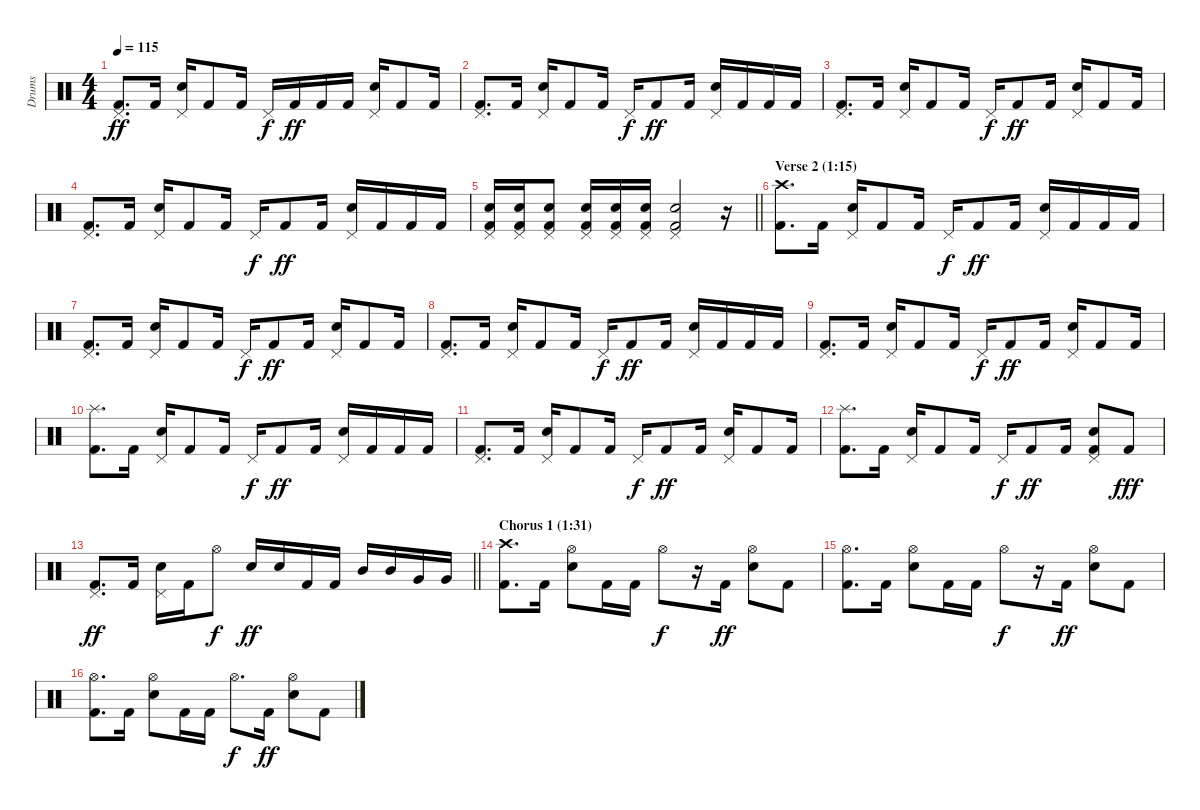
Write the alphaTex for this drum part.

\track ("Drums" "Drums") {instrument percussion}
\staff {score}
\articulation defaults
\ts (4 4)
\tempo 115
\clef neutral
\ks c
("Pedal Hi-Hat (hit)" "Kick (hit) 2").8{d dy ff} "Kick (hit) 2".16 ("Pedal Hi-Hat (hit)" "Snare (hit) 2").16 "Kick (hit) 2".8 "Kick (hit) 2".16 "Pedal Hi-Hat (hit)".16{dy f} "Kick (hit) 2".16{dy ff} "Kick (hit) 2".16 "Kick (hit) 2".16 ("Pedal Hi-Hat (hit)" "Snare (hit) 2").16 "Kick (hit) 2".8 "Kick (hit) 2".16 |
("Pedal Hi-Hat (hit)" "Kick (hit) 2").8{d} "Kick (hit) 2".16 ("Pedal Hi-Hat (hit)" "Snare (hit) 2").16 "Kick (hit) 2".8 "Kick (hit) 2".16 "Pedal Hi-Hat (hit)".16{dy f} "Kick (hit) 2".8{dy ff} "Kick (hit) 2".16 ("Pedal Hi-Hat (hit)" "Snare (hit) 2").16 "Kick (hit) 2".16 "Kick (hit) 2".16 "Kick (hit) 2".16 |
("Pedal Hi-Hat (hit)" "Kick (hit) 2").8{d} "Kick (hit) 2".16 ("Pedal Hi-Hat (hit)" "Snare (hit) 2").16 "Kick (hit) 2".8 "Kick (hit) 2".16 "Pedal Hi-Hat (hit)".16{dy f} "Kick (hit) 2".8{dy ff} "Kick (hit) 2".16 ("Pedal Hi-Hat (hit)" "Snare (hit) 2").16 "Kick (hit) 2".8 "Kick (hit) 2".16 |
("Pedal Hi-Hat (hit)" "Kick (hit) 2").8{d} "Kick (hit) 2".16 ("Pedal Hi-Hat (hit)" "Snare (hit) 2").16 "Kick (hit) 2".8 "Kick (hit) 2".16 "Pedal Hi-Hat (hit)".16{dy f} "Kick (hit) 2".8{dy ff} "Kick (hit) 2".16 ("Pedal Hi-Hat (hit)" "Snare (hit) 2").16 "Kick (hit) 2".16 "Kick (hit) 2".16 "Kick (hit) 2".16 |
\barLineRight lightlight
("Pedal Hi-Hat (hit)" "Snare (hit) 2" "Kick (hit) 2").16 ("Pedal Hi-Hat (hit)" "Snare (hit) 2" "Kick (hit) 2").16 ("Pedal Hi-Hat (hit)" "Snare (hit) 2" "Kick (hit) 2").8 ("Pedal Hi-Hat (hit)" "Snare (hit) 2" "Kick (hit) 2").16 ("Pedal Hi-Hat (hit)" "Snare (hit) 2" "Kick (hit) 2").16 ("Pedal Hi-Hat (hit)" "Snare (hit) 2" "Kick (hit) 2").16 ("Pedal Hi-Hat (hit)" "Snare (hit) 2" "Kick (hit) 2").2 r.16 |
\section ("" "Verse 2 (1:15)")
("Crash high (hit)" "Kick (hit) 2").8{d} "Kick (hit) 2".16 ("Pedal Hi-Hat (hit)" "Snare (hit) 2").16 "Kick (hit) 2".8 "Kick (hit) 2".16 "Pedal Hi-Hat (hit)".16{dy f} "Kick (hit) 2".8{dy ff} "Kick (hit) 2".16 ("Pedal Hi-Hat (hit)" "Snare (hit) 2").16 "Kick (hit) 2".16 "Kick (hit) 2".16 "Kick (hit) 2".16 |
("Pedal Hi-Hat (hit)" "Kick (hit) 2").8{d} "Kick (hit) 2".16 ("Pedal Hi-Hat (hit)" "Snare (hit) 2").16 "Kick (hit) 2".8 "Kick (hit) 2".16 "Pedal Hi-Hat (hit)".16{dy f} "Kick (hit) 2".8{dy ff} "Kick (hit) 2".16 ("Pedal Hi-Hat (hit)" "Snare (hit) 2").16 "Kick (hit) 2".8 "Kick (hit) 2".16 |
("Pedal Hi-Hat (hit)" "Kick (hit) 2").8{d} "Kick (hit) 2".16 ("Pedal Hi-Hat (hit)" "Snare (hit) 2").16 "Kick (hit) 2".8 "Kick (hit) 2".16 "Pedal Hi-Hat (hit)".16{dy f} "Kick (hit) 2".8{dy ff} "Kick (hit) 2".16 ("Pedal Hi-Hat (hit)" "Snare (hit) 2").16 "Kick (hit) 2".16 "Kick (hit) 2".16 "Kick (hit) 2".16 |
("Pedal Hi-Hat (hit)" "Kick (hit) 2").8{d} "Kick (hit) 2".16 ("Pedal Hi-Hat (hit)" "Snare (hit) 2").16 "Kick (hit) 2".8 "Kick (hit) 2".16 "Pedal Hi-Hat (hit)".16{dy f} "Kick (hit) 2".8{dy ff} "Kick (hit) 2".16 ("Pedal Hi-Hat (hit)" "Snare (hit) 2").16 "Kick (hit) 2".8 "Kick (hit) 2".16 |
("Splash (hit)" "Kick (hit) 2").8{d} "Kick (hit) 2".16 ("Pedal Hi-Hat (hit)" "Snare (hit) 2").16 "Kick (hit) 2".8 "Kick (hit) 2".16 "Pedal Hi-Hat (hit)".16{dy f} "Kick (hit) 2".8{dy ff} "Kick (hit) 2".16 ("Pedal Hi-Hat (hit)" "Snare (hit) 2").16 "Kick (hit) 2".16 "Kick (hit) 2".16 "Kick (hit) 2".16 |
("Pedal Hi-Hat (hit)" "Kick (hit) 2").8{d} "Kick (hit) 2".16 ("Pedal Hi-Hat (hit)" "Snare (hit) 2").16 "Kick (hit) 2".8 "Kick (hit) 2".16 "Pedal Hi-Hat (hit)".16{dy f} "Kick (hit) 2".8{dy ff} "Kick (hit) 2".16 ("Pedal Hi-Hat (hit)" "Snare (hit) 2").16 "Kick (hit) 2".8 "Kick (hit) 2".16 |
("Splash (hit)" "Kick (hit) 2").8{d} "Kick (hit) 2".16 ("Pedal Hi-Hat (hit)" "Snare (hit) 2").16 "Kick (hit) 2".8 "Kick (hit) 2".16 "Pedal Hi-Hat (hit)".16{dy f} "Kick (hit) 2".8{dy ff} "Kick (hit) 2".16 ("Pedal Hi-Hat (hit)" "Snare (hit) 2" "Kick (hit) 2").8 "Kick (hit) 2".8{dy fff} |
\barLineRight lightlight
("Pedal Hi-Hat (hit)" "Kick (hit) 2").8{d dy ff} "Kick (hit) 2".16 ("Pedal Hi-Hat (hit)" "Snare (hit) 2").16 "Kick (hit) 2".16 "Hi-Hat (open)".8{dy f} "Snare (hit) 2".16{dy ff} "Snare (hit) 2".16 "Kick (hit) 2".16 "Kick (hit) 2".16 "Mid Tom (hit)".16 "Mid Tom (hit)".16 "Very Low Tom (hit)".16 "Very Low Tom (hit)".16 |
\section ("" "Chorus 1 (1:31)")
("Crash high (hit)" "Kick (hit) 2").8{d} "Kick (hit) 2".16 ("Hi-Hat (open)" "Snare (hit) 2").8 "Kick (hit) 2".16 "Kick (hit) 2".16 "Hi-Hat (open)".8{dy f} r.16 "Kick (hit) 2".16{dy ff} ("Hi-Hat (open)" "Snare (hit) 2").8 "Kick (hit) 2".8 |
("Hi-Hat (open)" "Kick (hit) 2").8{d} "Kick (hit) 2".16 ("Hi-Hat (open)" "Snare (hit) 2").8 "Kick (hit) 2".16 "Kick (hit) 2".16 "Hi-Hat (open)".8{dy f} r.16 "Kick (hit) 2".16{dy ff} ("Hi-Hat (open)" "Snare (hit) 2").8 "Kick (hit) 2".8 |
("Hi-Hat (open)" "Kick (hit) 2").8{d} "Kick (hit) 2".16 ("Hi-Hat (open)" "Snare (hit) 2").8 "Kick (hit) 2".16 "Kick (hit) 2".16 "Hi-Hat (open)".8{d dy f} "Kick (hit) 2".16{dy ff} ("Hi-Hat (open)" "Snare (hit) 2").8 "Kick (hit) 2".8
